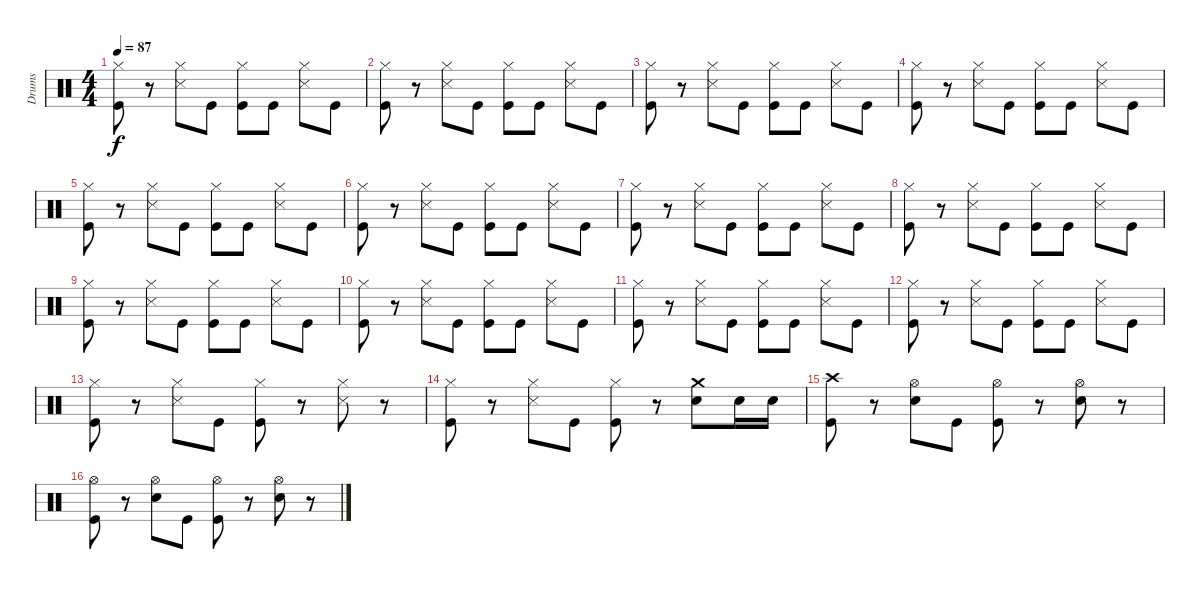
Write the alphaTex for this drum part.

\track ("Drums" "Drums") {instrument percussion}
\staff {score}
\articulation defaults
\ts (4 4)
\tempo 87
\clef neutral
\ks c
("Hi-Hat (closed)" "Kick (hit)").8{dy f} r.8 ("Hi-Hat (closed)" "Snare (side stick) 3").8 "Kick (hit)".8 ("Hi-Hat (closed)" "Kick (hit)").8 "Kick (hit)".8 ("Hi-Hat (closed)" "Snare (side stick) 3").8 "Kick (hit)".8 |
("Hi-Hat (closed)" "Kick (hit)").8 r.8 ("Hi-Hat (closed)" "Snare (side stick) 3").8 "Kick (hit)".8 ("Hi-Hat (closed)" "Kick (hit)").8 "Kick (hit)".8 ("Hi-Hat (closed)" "Snare (side stick) 3").8 "Kick (hit)".8 |
("Hi-Hat (closed)" "Kick (hit)").8 r.8 ("Hi-Hat (closed)" "Snare (side stick) 3").8 "Kick (hit)".8 ("Hi-Hat (closed)" "Kick (hit)").8 "Kick (hit)".8 ("Hi-Hat (closed)" "Snare (side stick) 3").8 "Kick (hit)".8 |
("Hi-Hat (closed)" "Kick (hit)").8 r.8 ("Hi-Hat (closed)" "Snare (side stick) 3").8 "Kick (hit)".8 ("Hi-Hat (closed)" "Kick (hit)").8 "Kick (hit)".8 ("Hi-Hat (closed)" "Snare (side stick) 3").8 "Kick (hit)".8 |
("Hi-Hat (closed)" "Kick (hit)").8 r.8 ("Hi-Hat (closed)" "Snare (side stick) 3").8 "Kick (hit)".8 ("Hi-Hat (closed)" "Kick (hit)").8 "Kick (hit)".8 ("Hi-Hat (closed)" "Snare (side stick) 3").8 "Kick (hit)".8 |
("Hi-Hat (closed)" "Kick (hit)").8 r.8 ("Hi-Hat (closed)" "Snare (side stick) 3").8 "Kick (hit)".8 ("Hi-Hat (closed)" "Kick (hit)").8 "Kick (hit)".8 ("Hi-Hat (closed)" "Snare (side stick) 3").8 "Kick (hit)".8 |
("Hi-Hat (closed)" "Kick (hit)").8 r.8 ("Hi-Hat (closed)" "Snare (side stick) 3").8 "Kick (hit)".8 ("Hi-Hat (closed)" "Kick (hit)").8 "Kick (hit)".8 ("Hi-Hat (closed)" "Snare (side stick) 3").8 "Kick (hit)".8 |
("Hi-Hat (closed)" "Kick (hit)").8 r.8 ("Hi-Hat (closed)" "Snare (side stick) 3").8 "Kick (hit)".8 ("Hi-Hat (closed)" "Kick (hit)").8 "Kick (hit)".8 ("Hi-Hat (closed)" "Snare (side stick) 3").8 "Kick (hit)".8 |
("Hi-Hat (closed)" "Kick (hit)").8 r.8 ("Hi-Hat (closed)" "Snare (side stick) 3").8 "Kick (hit)".8 ("Hi-Hat (closed)" "Kick (hit)").8 "Kick (hit)".8 ("Hi-Hat (closed)" "Snare (side stick) 3").8 "Kick (hit)".8 |
("Hi-Hat (closed)" "Kick (hit)").8 r.8 ("Hi-Hat (closed)" "Snare (side stick) 3").8 "Kick (hit)".8 ("Hi-Hat (closed)" "Kick (hit)").8 "Kick (hit)".8 ("Hi-Hat (closed)" "Snare (side stick) 3").8 "Kick (hit)".8 |
("Hi-Hat (closed)" "Kick (hit)").8 r.8 ("Hi-Hat (closed)" "Snare (side stick) 3").8 "Kick (hit)".8 ("Hi-Hat (closed)" "Kick (hit)").8 "Kick (hit)".8 ("Hi-Hat (closed)" "Snare (side stick) 3").8 "Kick (hit)".8 |
("Hi-Hat (closed)" "Kick (hit)").8 r.8 ("Hi-Hat (closed)" "Snare (side stick) 3").8 "Kick (hit)".8 ("Hi-Hat (closed)" "Kick (hit)").8 "Kick (hit)".8 ("Hi-Hat (closed)" "Snare (side stick) 3").8 "Kick (hit)".8 |
("Hi-Hat (closed)" "Kick (hit)").8 r.8 ("Hi-Hat (closed)" "Snare (side stick) 3").8 "Kick (hit)".8 ("Hi-Hat (closed)" "Kick (hit)").8 r.8 ("Hi-Hat (closed)" "Snare (side stick) 3").8 r.8 |
("Hi-Hat (closed)" "Kick (hit)").8 r.8 ("Hi-Hat (closed)" "Snare (side stick) 3").8 "Kick (hit)".8 ("Hi-Hat (closed)" "Kick (hit)").8 r.8 ("Crash medium (hit)" "Electric Snare (hit)").8 "Electric Snare (hit)".16 "Electric Snare (hit)".16 |
("Crash high (hit)" "Kick (hit)").8 r.8 ("Hi-Hat (open)" "Electric Snare (hit)").8 "Kick (hit)".8 ("Hi-Hat (open)" "Kick (hit)").8 r.8 ("Hi-Hat (open)" "Electric Snare (hit)").8 r.8 |
("Hi-Hat (open)" "Kick (hit)").8 r.8 ("Hi-Hat (open)" "Electric Snare (hit)").8 "Kick (hit)".8 ("Hi-Hat (open)" "Kick (hit)").8 r.8 ("Hi-Hat (open)" "Electric Snare (hit)").8 r.8
